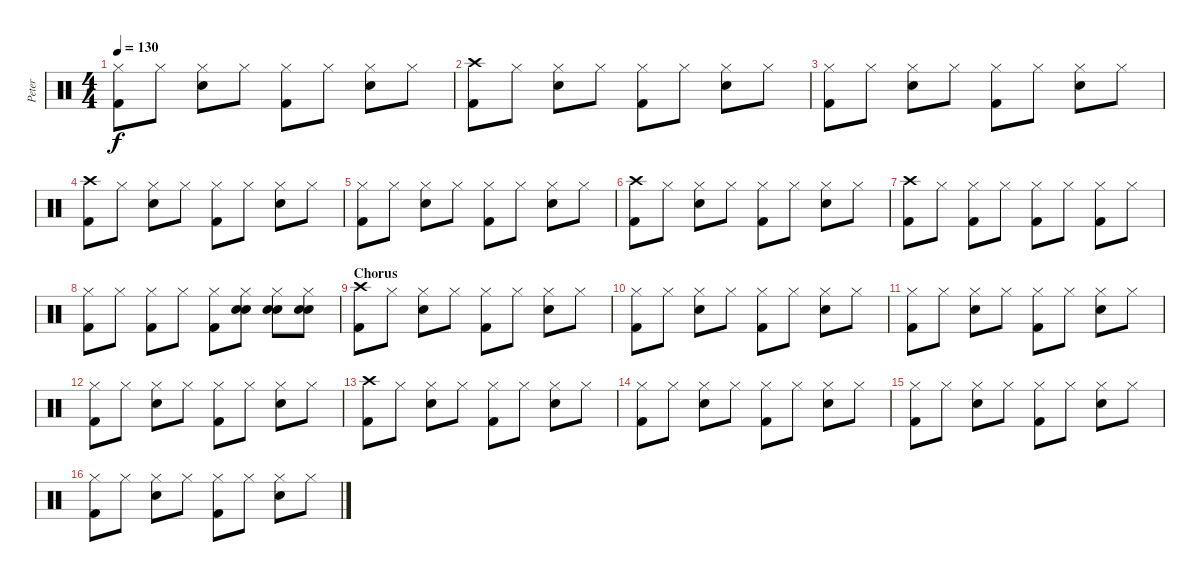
\track ("Peter" "Peter") {instrument percussion}
\staff {score}
\articulation defaults
\ts (4 4)
\tempo 130
\clef neutral
\ks c
("Hi-Hat (closed)" "Kick (hit) 2").8{dy f} "Hi-Hat (closed)".8 ("Hi-Hat (closed)" "Snare (hit) 2").8 "Hi-Hat (closed)".8 ("Hi-Hat (closed)" "Kick (hit) 2").8 "Hi-Hat (closed)".8 ("Hi-Hat (closed)" "Snare (hit) 2").8 "Hi-Hat (closed)".8 |
("Crash high (hit)" "Kick (hit) 2").8 "Hi-Hat (closed)".8 ("Hi-Hat (closed)" "Snare (hit) 2").8 "Hi-Hat (closed)".8 ("Hi-Hat (closed)" "Kick (hit) 2").8 "Hi-Hat (closed)".8 ("Hi-Hat (closed)" "Snare (hit) 2").8 "Hi-Hat (closed)".8 |
("Hi-Hat (closed)" "Kick (hit) 2").8 "Hi-Hat (closed)".8 ("Hi-Hat (closed)" "Snare (hit) 2").8 "Hi-Hat (closed)".8 ("Hi-Hat (closed)" "Kick (hit) 2").8 "Hi-Hat (closed)".8 ("Hi-Hat (closed)" "Snare (hit) 2").8 "Hi-Hat (closed)".8 |
("Crash high (hit)" "Kick (hit) 2").8 "Hi-Hat (closed)".8 ("Hi-Hat (closed)" "Snare (hit) 2").8 "Hi-Hat (closed)".8 ("Hi-Hat (closed)" "Kick (hit) 2").8 "Hi-Hat (closed)".8 ("Hi-Hat (closed)" "Snare (hit) 2").8 "Hi-Hat (closed)".8 |
("Hi-Hat (closed)" "Kick (hit) 2").8 "Hi-Hat (closed)".8 ("Hi-Hat (closed)" "Snare (hit) 2").8 "Hi-Hat (closed)".8 ("Hi-Hat (closed)" "Kick (hit) 2").8 "Hi-Hat (closed)".8 ("Hi-Hat (closed)" "Snare (hit) 2").8 "Hi-Hat (closed)".8 |
("Crash high (hit)" "Kick (hit) 2").8 "Hi-Hat (closed)".8 ("Hi-Hat (closed)" "Snare (hit) 2").8 "Hi-Hat (closed)".8 ("Hi-Hat (closed)" "Kick (hit) 2").8 "Hi-Hat (closed)".8 ("Hi-Hat (closed)" "Snare (hit) 2").8 "Hi-Hat (closed)".8 |
("Crash high (hit)" "Kick (hit) 2").8 "Hi-Hat (closed)".8 ("Hi-Hat (closed)" "Kick (hit) 2").8 "Hi-Hat (closed)".8 ("Hi-Hat (closed)" "Kick (hit) 2").8 "Hi-Hat (closed)".8 ("Hi-Hat (closed)" "Kick (hit) 2").8 "Hi-Hat (closed)".8 |
("Hi-Hat (closed)" "Kick (hit) 2").8 "Hi-Hat (closed)".8 ("Hi-Hat (closed)" "Kick (hit) 2").8 "Hi-Hat (closed)".8 ("Hi-Hat (closed)" "Kick (hit) 2").8 ("Hi-Hat (closed)" "Electric Snare (hit)" "Electric Snare (hit)").8 ("Hi-Hat (closed)" "Electric Snare (hit)" "Electric Snare (hit)").8 ("Hi-Hat (closed)" "Electric Snare (hit)" "Electric Snare (hit)").8 |
\section ("" "Chorus")
("Crash high (hit)" "Kick (hit) 2").8 "Hi-Hat (closed)".8 ("Hi-Hat (closed)" "Snare (hit) 2").8 "Hi-Hat (closed)".8 ("Hi-Hat (closed)" "Kick (hit) 2").8 "Hi-Hat (closed)".8 ("Hi-Hat (closed)" "Snare (hit) 2").8 "Hi-Hat (closed)".8 |
("Hi-Hat (closed)" "Kick (hit) 2").8 "Hi-Hat (closed)".8 ("Hi-Hat (closed)" "Snare (hit) 2").8 "Hi-Hat (closed)".8 ("Hi-Hat (closed)" "Kick (hit) 2").8 "Hi-Hat (closed)".8 ("Hi-Hat (closed)" "Snare (hit) 2").8 "Hi-Hat (closed)".8 |
("Hi-Hat (closed)" "Kick (hit) 2").8 "Hi-Hat (closed)".8 ("Hi-Hat (closed)" "Snare (hit) 2").8 "Hi-Hat (closed)".8 ("Hi-Hat (closed)" "Kick (hit) 2").8 "Hi-Hat (closed)".8 ("Hi-Hat (closed)" "Snare (hit) 2").8 "Hi-Hat (closed)".8 |
("Hi-Hat (closed)" "Kick (hit) 2").8 "Hi-Hat (closed)".8 ("Hi-Hat (closed)" "Snare (hit) 2").8 "Hi-Hat (closed)".8 ("Hi-Hat (closed)" "Kick (hit) 2").8 "Hi-Hat (closed)".8 ("Hi-Hat (closed)" "Snare (hit) 2").8 "Hi-Hat (closed)".8 |
("Crash high (hit)" "Kick (hit) 2").8 "Hi-Hat (closed)".8 ("Hi-Hat (closed)" "Snare (hit) 2").8 "Hi-Hat (closed)".8 ("Hi-Hat (closed)" "Kick (hit) 2").8 "Hi-Hat (closed)".8 ("Hi-Hat (closed)" "Snare (hit) 2").8 "Hi-Hat (closed)".8 |
("Hi-Hat (closed)" "Kick (hit) 2").8 "Hi-Hat (closed)".8 ("Hi-Hat (closed)" "Snare (hit) 2").8 "Hi-Hat (closed)".8 ("Hi-Hat (closed)" "Kick (hit) 2").8 "Hi-Hat (closed)".8 ("Hi-Hat (closed)" "Snare (hit) 2").8 "Hi-Hat (closed)".8 |
("Hi-Hat (closed)" "Kick (hit) 2").8 "Hi-Hat (closed)".8 ("Hi-Hat (closed)" "Snare (hit) 2").8 "Hi-Hat (closed)".8 ("Hi-Hat (closed)" "Kick (hit) 2").8 "Hi-Hat (closed)".8 ("Hi-Hat (closed)" "Snare (hit) 2").8 "Hi-Hat (closed)".8 |
("Hi-Hat (closed)" "Kick (hit) 2").8 "Hi-Hat (closed)".8 ("Hi-Hat (closed)" "Snare (hit) 2").8 "Hi-Hat (closed)".8 ("Hi-Hat (closed)" "Kick (hit) 2").8 "Hi-Hat (closed)".8 ("Hi-Hat (closed)" "Snare (hit) 2").8 "Hi-Hat (closed)".8
